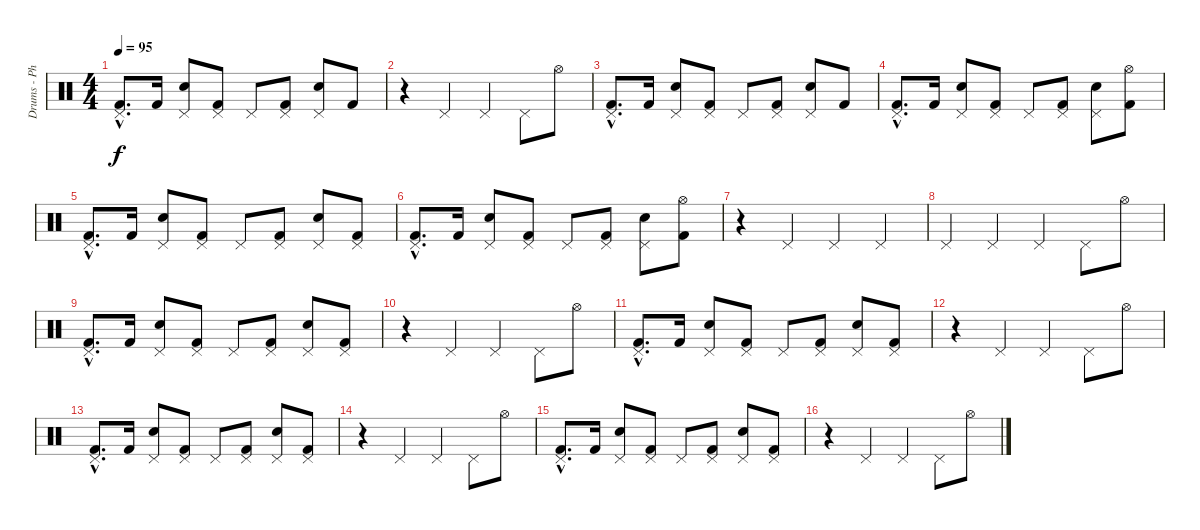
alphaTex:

\track ("Drums - Phil Selway" "Drums - Ph") {instrument percussion}
\staff {score}
\articulation defaults
\ts (4 4)
\tempo 95
\clef neutral
\ks c
("Pedal Hi-Hat (hit)"{hac} "Kick (hit) 2"{hac}).8{d dy f} "Kick (hit) 2".16 ("Pedal Hi-Hat (hit)" "Snare (hit) 2").8 ("Pedal Hi-Hat (hit)" "Kick (hit) 2").8 "Pedal Hi-Hat (hit)".8 ("Pedal Hi-Hat (hit)" "Kick (hit) 2").8 ("Pedal Hi-Hat (hit)" "Snare (hit) 2").8 "Kick (hit) 2".8 |
r.4{volume 12} "Pedal Hi-Hat (hit)".4 "Pedal Hi-Hat (hit)".4 "Pedal Hi-Hat (hit)".8 "Hi-Hat (open)".8 |
("Pedal Hi-Hat (hit)"{hac} "Kick (hit) 2"{hac}).8{d} "Kick (hit) 2".16 ("Pedal Hi-Hat (hit)" "Snare (hit) 2").8 ("Pedal Hi-Hat (hit)" "Kick (hit) 2").8 "Pedal Hi-Hat (hit)".8 ("Pedal Hi-Hat (hit)" "Kick (hit) 2").8 ("Pedal Hi-Hat (hit)" "Snare (hit) 2").8 "Kick (hit) 2".8 |
("Pedal Hi-Hat (hit)"{hac} "Kick (hit) 2"{hac}).8{d} "Kick (hit) 2".16 ("Pedal Hi-Hat (hit)" "Snare (hit) 2").8 ("Pedal Hi-Hat (hit)" "Kick (hit) 2").8 "Pedal Hi-Hat (hit)".8 ("Pedal Hi-Hat (hit)" "Kick (hit) 2").8 ("Pedal Hi-Hat (hit)" "Snare (hit) 2").8 ("Hi-Hat (open)" "Kick (hit) 2").8 |
("Pedal Hi-Hat (hit)"{hac} "Kick (hit) 2"{hac}).8{d} "Kick (hit) 2".16 ("Pedal Hi-Hat (hit)" "Snare (hit) 2").8 ("Pedal Hi-Hat (hit)" "Kick (hit) 2").8 "Pedal Hi-Hat (hit)".8 ("Pedal Hi-Hat (hit)" "Kick (hit) 2").8 ("Pedal Hi-Hat (hit)" "Snare (hit) 2").8 ("Pedal Hi-Hat (hit)" "Kick (hit) 2").8 |
("Pedal Hi-Hat (hit)"{hac} "Kick (hit) 2"{hac}).8{d} "Kick (hit) 2".16 ("Pedal Hi-Hat (hit)" "Snare (hit) 2").8 ("Pedal Hi-Hat (hit)" "Kick (hit) 2").8 "Pedal Hi-Hat (hit)".8 ("Pedal Hi-Hat (hit)" "Kick (hit) 2").8 ("Pedal Hi-Hat (hit)" "Snare (hit) 2").8 ("Hi-Hat (open)" "Kick (hit) 2").8 |
r.4 "Pedal Hi-Hat (hit)".4 "Pedal Hi-Hat (hit)".4 "Pedal Hi-Hat (hit)".4 |
"Pedal Hi-Hat (hit)".4 "Pedal Hi-Hat (hit)".4 "Pedal Hi-Hat (hit)".4 "Pedal Hi-Hat (hit)".8 "Hi-Hat (open)".8 |
("Pedal Hi-Hat (hit)"{hac} "Kick (hit) 2"{hac}).8{d} "Kick (hit) 2".16 ("Pedal Hi-Hat (hit)" "Snare (hit) 2").8 ("Pedal Hi-Hat (hit)" "Kick (hit) 2").8 "Pedal Hi-Hat (hit)".8 ("Pedal Hi-Hat (hit)" "Kick (hit) 2").8 ("Pedal Hi-Hat (hit)" "Snare (hit) 2").8 ("Pedal Hi-Hat (hit)" "Kick (hit) 2").8 |
r.4 "Pedal Hi-Hat (hit)".4 "Pedal Hi-Hat (hit)".4 "Pedal Hi-Hat (hit)".8 "Hi-Hat (open)".8 |
("Pedal Hi-Hat (hit)"{hac} "Kick (hit) 2"{hac}).8{d} "Kick (hit) 2".16 ("Pedal Hi-Hat (hit)" "Snare (hit) 2").8 ("Pedal Hi-Hat (hit)" "Kick (hit) 2").8 "Pedal Hi-Hat (hit)".8 ("Pedal Hi-Hat (hit)" "Kick (hit) 2").8 ("Pedal Hi-Hat (hit)" "Snare (hit) 2").8 ("Pedal Hi-Hat (hit)" "Kick (hit) 2").8 |
r.4 "Pedal Hi-Hat (hit)".4 "Pedal Hi-Hat (hit)".4 "Pedal Hi-Hat (hit)".8 "Hi-Hat (open)".8 |
("Pedal Hi-Hat (hit)"{hac} "Kick (hit) 2"{hac}).8{d} "Kick (hit) 2".16 ("Pedal Hi-Hat (hit)" "Snare (hit) 2").8 ("Pedal Hi-Hat (hit)" "Kick (hit) 2").8 "Pedal Hi-Hat (hit)".8 ("Pedal Hi-Hat (hit)" "Kick (hit) 2").8 ("Pedal Hi-Hat (hit)" "Snare (hit) 2").8 ("Pedal Hi-Hat (hit)" "Kick (hit) 2").8 |
r.4 "Pedal Hi-Hat (hit)".4 "Pedal Hi-Hat (hit)".4 "Pedal Hi-Hat (hit)".8 "Hi-Hat (open)".8 |
("Pedal Hi-Hat (hit)"{hac} "Kick (hit) 2"{hac}).8{d} "Kick (hit) 2".16 ("Pedal Hi-Hat (hit)" "Snare (hit) 2").8 ("Pedal Hi-Hat (hit)" "Kick (hit) 2").8 "Pedal Hi-Hat (hit)".8 ("Pedal Hi-Hat (hit)" "Kick (hit) 2").8 ("Pedal Hi-Hat (hit)" "Snare (hit) 2").8 ("Pedal Hi-Hat (hit)" "Kick (hit) 2").8 |
r.4 "Pedal Hi-Hat (hit)".4 "Pedal Hi-Hat (hit)".4 "Pedal Hi-Hat (hit)".8 "Hi-Hat (open)".8
